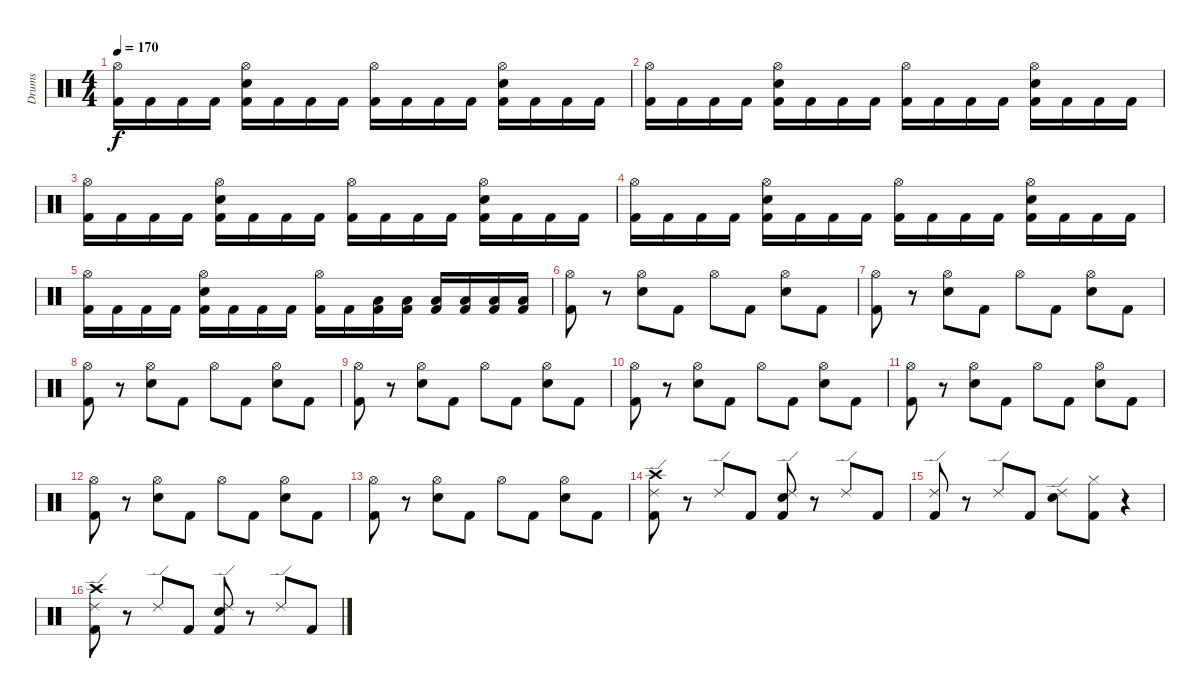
\track ("Drums" "Drums") {instrument percussion}
\staff {score}
\articulation defaults
\ts (4 4)
\tempo 170
\clef neutral
\ks c
("Hi-Hat (open)" "Kick (hit) 2").16{dy f} "Kick (hit) 2".16 "Kick (hit) 2".16 "Kick (hit) 2".16 ("Hi-Hat (open)" "Electric Snare (hit)" "Kick (hit) 2").16 "Kick (hit) 2".16 "Kick (hit) 2".16 "Kick (hit) 2".16 ("Hi-Hat (open)" "Kick (hit) 2").16 "Kick (hit) 2".16 "Kick (hit) 2".16 "Kick (hit) 2".16 ("Hi-Hat (open)" "Electric Snare (hit)" "Kick (hit) 2").16 "Kick (hit) 2".16 "Kick (hit) 2".16 "Kick (hit) 2".16 |
("Hi-Hat (open)" "Kick (hit) 2").16 "Kick (hit) 2".16 "Kick (hit) 2".16 "Kick (hit) 2".16 ("Hi-Hat (open)" "Electric Snare (hit)" "Kick (hit) 2").16 "Kick (hit) 2".16 "Kick (hit) 2".16 "Kick (hit) 2".16 ("Hi-Hat (open)" "Kick (hit) 2").16 "Kick (hit) 2".16 "Kick (hit) 2".16 "Kick (hit) 2".16 ("Hi-Hat (open)" "Electric Snare (hit)" "Kick (hit) 2").16 "Kick (hit) 2".16 "Kick (hit) 2".16 "Kick (hit) 2".16 |
("Hi-Hat (open)" "Kick (hit) 2").16 "Kick (hit) 2".16 "Kick (hit) 2".16 "Kick (hit) 2".16 ("Hi-Hat (open)" "Electric Snare (hit)" "Kick (hit) 2").16 "Kick (hit) 2".16 "Kick (hit) 2".16 "Kick (hit) 2".16 ("Hi-Hat (open)" "Kick (hit) 2").16 "Kick (hit) 2".16 "Kick (hit) 2".16 "Kick (hit) 2".16 ("Hi-Hat (open)" "Electric Snare (hit)" "Kick (hit) 2").16 "Kick (hit) 2".16 "Kick (hit) 2".16 "Kick (hit) 2".16 |
("Hi-Hat (open)" "Kick (hit) 2").16 "Kick (hit) 2".16 "Kick (hit) 2".16 "Kick (hit) 2".16 ("Hi-Hat (open)" "Electric Snare (hit)" "Kick (hit) 2").16 "Kick (hit) 2".16 "Kick (hit) 2".16 "Kick (hit) 2".16 ("Hi-Hat (open)" "Kick (hit) 2").16 "Kick (hit) 2".16 "Kick (hit) 2".16 "Kick (hit) 2".16 ("Hi-Hat (open)" "Electric Snare (hit)" "Kick (hit) 2").16 "Kick (hit) 2".16 "Kick (hit) 2".16 "Kick (hit) 2".16 |
("Hi-Hat (open)" "Kick (hit) 2").16 "Kick (hit) 2".16 "Kick (hit) 2".16 "Kick (hit) 2".16 ("Hi-Hat (open)" "Electric Snare (hit)" "Kick (hit) 2").16 "Kick (hit) 2".16 "Kick (hit) 2".16 "Kick (hit) 2".16 ("Hi-Hat (open)" "Kick (hit) 2").16 "Kick (hit) 2".16 ("Low Floor Tom (hit)" "Kick (hit) 2").16 ("Low Floor Tom (hit)" "Kick (hit) 2").16 ("Low Floor Tom (hit)" "Kick (hit) 2").16 ("Low Floor Tom (hit)" "Kick (hit) 2").16 ("Low Floor Tom (hit)" "Kick (hit) 2").16 ("Low Floor Tom (hit)" "Kick (hit) 2").16 |
("Hi-Hat (open)" "Kick (hit) 2").8 r.8 ("Hi-Hat (open)" "Electric Snare (hit)").8 "Kick (hit) 2".8 "Hi-Hat (open)".8 "Kick (hit) 2".8 ("Hi-Hat (open)" "Electric Snare (hit)").8 "Kick (hit) 2".8 |
("Hi-Hat (open)" "Kick (hit) 2").8 r.8 ("Hi-Hat (open)" "Electric Snare (hit)").8 "Kick (hit) 2".8 "Hi-Hat (open)".8 "Kick (hit) 2".8 ("Hi-Hat (open)" "Electric Snare (hit)").8 "Kick (hit) 2".8 |
("Hi-Hat (open)" "Kick (hit) 2").8 r.8 ("Hi-Hat (open)" "Electric Snare (hit)").8 "Kick (hit) 2".8 "Hi-Hat (open)".8 "Kick (hit) 2".8 ("Hi-Hat (open)" "Electric Snare (hit)").8 "Kick (hit) 2".8 |
("Hi-Hat (open)" "Kick (hit) 2").8 r.8 ("Hi-Hat (open)" "Electric Snare (hit)").8 "Kick (hit) 2".8 "Hi-Hat (open)".8 "Kick (hit) 2".8 ("Hi-Hat (open)" "Electric Snare (hit)").8 "Kick (hit) 2".8 |
("Hi-Hat (open)" "Kick (hit) 2").8 r.8 ("Hi-Hat (open)" "Electric Snare (hit)").8 "Kick (hit) 2".8 "Hi-Hat (open)".8 "Kick (hit) 2".8 ("Hi-Hat (open)" "Electric Snare (hit)").8 "Kick (hit) 2".8 |
("Hi-Hat (open)" "Kick (hit) 2").8 r.8 ("Hi-Hat (open)" "Electric Snare (hit)").8 "Kick (hit) 2".8 "Hi-Hat (open)".8 "Kick (hit) 2".8 ("Hi-Hat (open)" "Electric Snare (hit)").8 "Kick (hit) 2".8 |
("Hi-Hat (open)" "Kick (hit) 2").8 r.8 ("Hi-Hat (open)" "Electric Snare (hit)").8 "Kick (hit) 2".8 "Hi-Hat (open)".8 "Kick (hit) 2".8 ("Hi-Hat (open)" "Electric Snare (hit)").8 "Kick (hit) 2".8 |
("Hi-Hat (open)" "Kick (hit) 2").8 r.8 ("Hi-Hat (open)" "Electric Snare (hit)").8 "Kick (hit) 2".8 "Hi-Hat (open)".8 "Kick (hit) 2".8 ("Hi-Hat (open)" "Electric Snare (hit)").8 "Kick (hit) 2".8 |
("Ride (edge) 2" "Crash high (hit)" "Kick (hit) 2").8 r.8 "Ride (edge) 2".8 "Kick (hit) 2".8 ("Ride (edge) 2" "Electric Snare (hit)" "Kick (hit) 2").8 r.8 "Ride (edge) 2".8 "Kick (hit) 2".8 |
("Ride (edge) 2" "Kick (hit) 2").8 r.8 "Ride (edge) 2".8 "Kick (hit) 2".8 ("Ride (edge) 2" "Electric Snare (hit)").8 ("Hi-Hat (closed)" "Kick (hit) 2").8 r.4 |
("Ride (edge) 2" "Crash high (hit)" "Kick (hit) 2").8 r.8 "Ride (edge) 2".8 "Kick (hit) 2".8 ("Ride (edge) 2" "Electric Snare (hit)" "Kick (hit) 2").8 r.8 "Ride (edge) 2".8 "Kick (hit) 2".8
